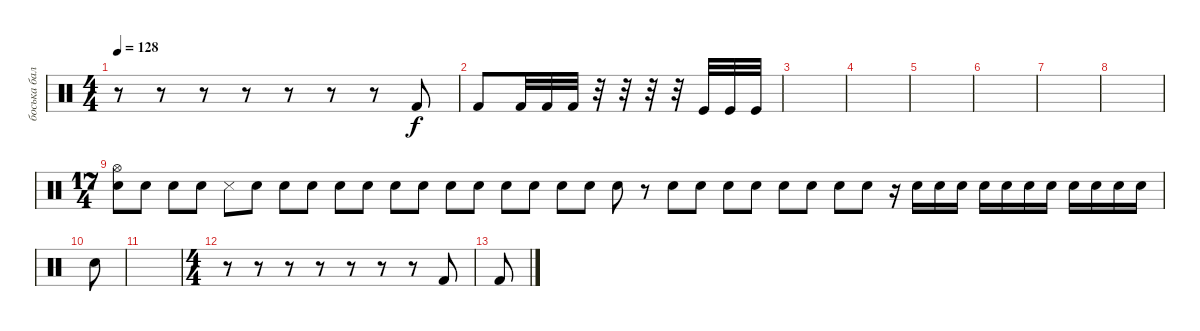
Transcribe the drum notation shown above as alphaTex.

\track ("боська балабаськов" "боська бал") {instrument percussion}
\staff {score}
\articulation defaults
\ts (4 4)
\tempo 128
\clef neutral
\ks c
r.8{dy mf} r.8 r.8 r.8 r.8 r.8 r.8 "Kick (hit) 2".8{dy f} |
"Kick (hit) 2".8 "Kick (hit) 2".32 "Kick (hit) 2".32 "Kick (hit) 2".32 r.32 r.32 r.32 r.32 "Kick (hit)".32 "Kick (hit)".32 "Kick (hit)".32 |
|
|
|
|
|
|
\ts (17 4)
("Snare (hit)" "Hi-Hat (open)").8 "Snare (hit)".8 "Snare (hit)".8 "Snare (hit)".8 "Metronome (hit)".8 "Snare (hit)".8 "Snare (hit)".8 "Snare (hit)".8 "Snare (hit)".8 "Snare (hit)".8 "Snare (hit)".8 "Snare (hit)".8 "Snare (hit)".8 "Snare (hit)".8 "Snare (hit)".8 "Snare (hit)".8 "Snare (hit)".8 "Snare (hit)".8 "Snare (hit)".8 r.8 "Snare (hit)".8 "Snare (hit)".8 "Snare (hit)".8 "Snare (hit)".8 "Snare (hit)".8 "Snare (hit)".8 "Snare (hit)".8 "Snare (hit)".8 r.16 "Snare (hit) 2".16 "Snare (hit) 2".16 "Snare (hit) 2".16 "Snare (hit) 2".16 "Snare (hit) 2".16 "Snare (hit) 2".16 "Snare (hit) 2".16 "Snare (hit) 2".16 "Snare (hit) 2".16 "Snare (hit) 2".16 "Snare (hit) 2".16 |
"Snare (hit)".8 |
|
\ts (4 4)
r.8 r.8 r.8 r.8 r.8 r.8 r.8 "Kick (hit) 2".8 |
"Kick (hit) 2".8
